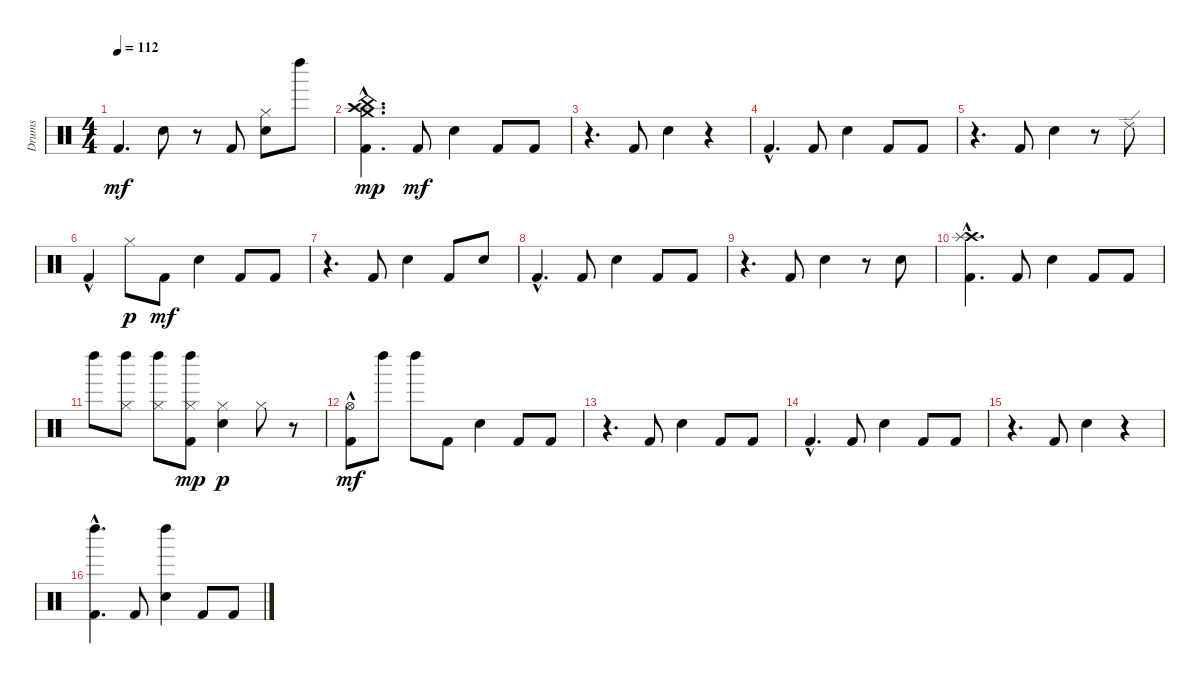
\track ("Drums" "Drums") {instrument percussion}
\staff {score}
\articulation defaults
\ts (4 4)
\tempo 112
\clef neutral
\ks c "Kick (hit) 2".4{d dy mf} "Electric Snare (hit)".8
r.8 "Kick (hit) 2".8 ("Electric Snare (hit)" "Hi-Hat (closed)").8 "Left Maraca (hit)".8 |
("Kick (hit) 2"{hac} "Crash high (hit)" "Crash medium (hit)" "China (hit)").4{d dy mp} "Kick (hit) 2".8{dy mf} "Snare (hit) 2".4 "Kick (hit) 2".8 "Kick (hit) 2".8 |
r.4{d} "Kick (hit) 2".8 "Snare (hit) 2".4 r.4 |
"Kick (hit) 2"{hac}.4{d} "Kick (hit) 2".8 "Snare (hit) 2".4 "Kick (hit) 2".8 "Kick (hit) 2".8 |
r.4{d} "Kick (hit) 2".8 "Snare (hit) 2".4 r.8 "Ride (edge) 2".8 |
"Kick (hit) 2"{hac}.4 "Hi-Hat (closed)".8{dy p} "Kick (hit) 2".8{dy mf} "Snare (hit) 2".4 "Kick (hit) 2".8 "Kick (hit) 2".8 |
r.4{d} "Kick (hit) 2".8 "Snare (hit) 2".4 "Kick (hit) 2".8 "Snare (hit) 2".8 |
"Kick (hit) 2"{hac}.4{d} "Kick (hit) 2".8 "Snare (hit) 2".4 "Kick (hit) 2".8 "Kick (hit) 2".8 |
r.4{d} "Kick (hit) 2".8 "Snare (hit) 2".4 r.8 "Snare (hit) 2".8 |
("Kick (hit) 2"{hac} "Crash high (hit)" "Splash (hit)").4{d} "Kick (hit) 2".8 "Snare (hit) 2".4 "Kick (hit) 2".8 "Kick (hit) 2".8 |
"Left Maraca (hit)".8 ("Hi-Hat (closed)" "Left Maraca (hit)").8 ("Left Maraca (hit)" "Hi-Hat (closed)").8 ("Kick (hit) 2" "Left Maraca (hit)" "Hi-Hat (closed)").8{dy mp} ("Snare (hit) 2" "Hi-Hat (closed)").4{dy p} "Hi-Hat (closed)".8 r.8 |
("Kick (hit) 2"{hac} "Hi-Hat (open)").8{dy mf} "Left Maraca (hit)".8 "Left Maraca (hit)".8 "Kick (hit) 2".8 "Snare (hit) 2".4 "Kick (hit) 2".8 "Kick (hit) 2".8 |
r.4{d} "Kick (hit) 2".8 "Snare (hit) 2".4 "Kick (hit) 2".8 "Kick (hit) 2".8 |
"Kick (hit) 2"{hac}.4{d} "Kick (hit) 2".8 "Snare (hit) 2".4 "Kick (hit) 2".8 "Kick (hit) 2".8 |
r.4{d} "Kick (hit) 2".8 "Snare (hit) 2".4 r.4 |
("Kick (hit) 2"{hac} "Left Maraca (hit)").4{d} "Kick (hit) 2".8 ("Snare (hit) 2" "Left Maraca (hit)").4 "Kick (hit) 2".8 "Kick (hit) 2".8
